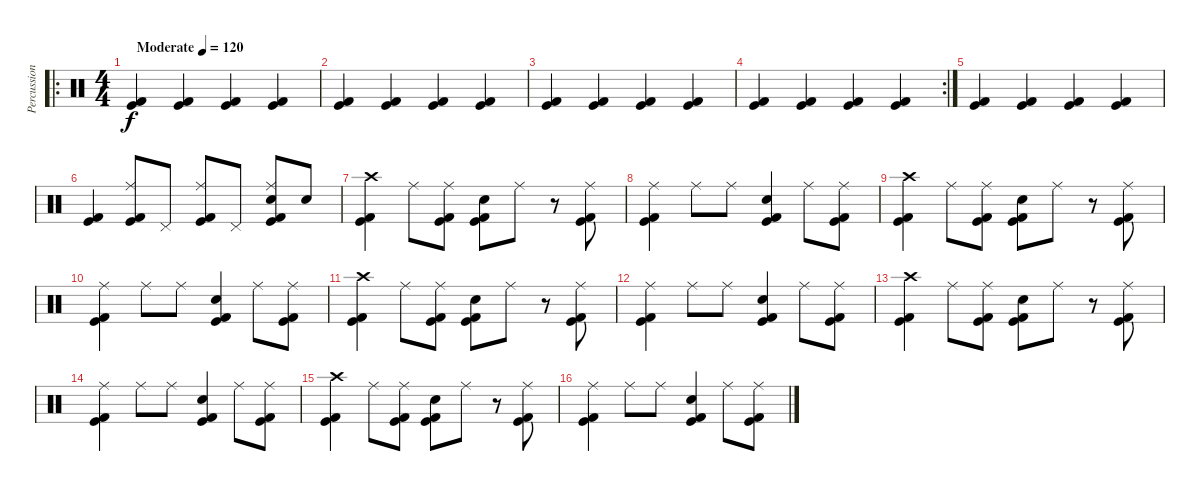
\track ("Percussion" "Percussion") {instrument percussion}
\staff {score}
\articulation defaults
\ro
\ts (4 4)
\tempo (120 "Moderate")
\clef neutral
\ks c
("Kick (hit)" "Kick (hit) 2").4{dy f} ("Kick (hit)" "Kick (hit) 2").4 ("Kick (hit)" "Kick (hit) 2").4 ("Kick (hit)" "Kick (hit) 2").4 |
("Kick (hit)" "Kick (hit) 2").4 ("Kick (hit)" "Kick (hit) 2").4 ("Kick (hit)" "Kick (hit) 2").4 ("Kick (hit)" "Kick (hit) 2").4 |
("Kick (hit)" "Kick (hit) 2").4 ("Kick (hit)" "Kick (hit) 2").4 ("Kick (hit)" "Kick (hit) 2").4 ("Kick (hit)" "Kick (hit) 2").4 |
\rc 2
("Kick (hit)" "Kick (hit) 2").4 ("Kick (hit)" "Kick (hit) 2").4 ("Kick (hit)" "Kick (hit) 2").4 ("Kick (hit)" "Kick (hit) 2").4 |
("Kick (hit)" "Kick (hit) 2").4 ("Kick (hit)" "Kick (hit) 2").4 ("Kick (hit)" "Kick (hit) 2").4 ("Kick (hit)" "Kick (hit) 2").4 |
("Kick (hit)" "Kick (hit) 2").4 ("Ride (middle)" "Kick (hit)" "Kick (hit) 2").8 "Pedal Hi-Hat (hit)".8 ("Ride (middle)" "Kick (hit)" "Kick (hit) 2").8 "Pedal Hi-Hat (hit)".8 ("Electric Snare (hit)" "Ride (middle)" "Kick (hit)" "Kick (hit) 2").8 "Electric Snare (hit)".8 |
("Crash high (hit)" "Kick (hit)" "Kick (hit) 2").4 "Ride (middle)".8 ("Ride (middle)" "Kick (hit)" "Kick (hit) 2").8 ("Electric Snare (hit)" "Kick (hit)" "Kick (hit) 2").8 "Ride (middle)".8 r.8 ("Ride (middle)" "Kick (hit)" "Kick (hit) 2").8 |
("Ride (middle)" "Kick (hit)" "Kick (hit) 2").4 "Ride (middle)".8 "Ride (middle)".8 ("Electric Snare (hit)" "Kick (hit)" "Kick (hit) 2").4 "Ride (middle)".8 ("Ride (middle)" "Kick (hit)" "Kick (hit) 2").8 |
("Crash high (hit)" "Kick (hit)" "Kick (hit) 2").4 "Ride (middle)".8 ("Ride (middle)" "Kick (hit)" "Kick (hit) 2").8 ("Electric Snare (hit)" "Kick (hit)" "Kick (hit) 2").8 "Ride (middle)".8 r.8 ("Ride (middle)" "Kick (hit)" "Kick (hit) 2").8 |
("Ride (middle)" "Kick (hit)" "Kick (hit) 2").4 "Ride (middle)".8 "Ride (middle)".8 ("Electric Snare (hit)" "Kick (hit)" "Kick (hit) 2").4 "Ride (middle)".8 ("Ride (middle)" "Kick (hit)" "Kick (hit) 2").8 |
("Crash high (hit)" "Kick (hit)" "Kick (hit) 2").4 "Ride (middle)".8 ("Ride (middle)" "Kick (hit)" "Kick (hit) 2").8 ("Electric Snare (hit)" "Kick (hit)" "Kick (hit) 2").8 "Ride (middle)".8 r.8 ("Ride (middle)" "Kick (hit)" "Kick (hit) 2").8 |
("Ride (middle)" "Kick (hit)" "Kick (hit) 2").4 "Ride (middle)".8 "Ride (middle)".8 ("Electric Snare (hit)" "Kick (hit)" "Kick (hit) 2").4 "Ride (middle)".8 ("Ride (middle)" "Kick (hit)" "Kick (hit) 2").8 |
("Crash high (hit)" "Kick (hit)" "Kick (hit) 2").4 "Ride (middle)".8 ("Ride (middle)" "Kick (hit)" "Kick (hit) 2").8 ("Electric Snare (hit)" "Kick (hit)" "Kick (hit) 2").8 "Ride (middle)".8 r.8 ("Ride (middle)" "Kick (hit)" "Kick (hit) 2").8 |
("Ride (middle)" "Kick (hit)" "Kick (hit) 2").4 "Ride (middle)".8 "Ride (middle)".8 ("Electric Snare (hit)" "Kick (hit)" "Kick (hit) 2").4 "Ride (middle)".8 ("Ride (middle)" "Kick (hit)" "Kick (hit) 2").8 |
("Crash high (hit)" "Kick (hit)" "Kick (hit) 2").4 "Ride (middle)".8 ("Ride (middle)" "Kick (hit)" "Kick (hit) 2").8 ("Electric Snare (hit)" "Kick (hit)" "Kick (hit) 2").8 "Ride (middle)".8 r.8 ("Ride (middle)" "Kick (hit)" "Kick (hit) 2").8 |
("Ride (middle)" "Kick (hit)" "Kick (hit) 2").4 "Ride (middle)".8 "Ride (middle)".8 ("Electric Snare (hit)" "Kick (hit)" "Kick (hit) 2").4 "Ride (middle)".8 ("Ride (middle)" "Kick (hit)" "Kick (hit) 2").8
